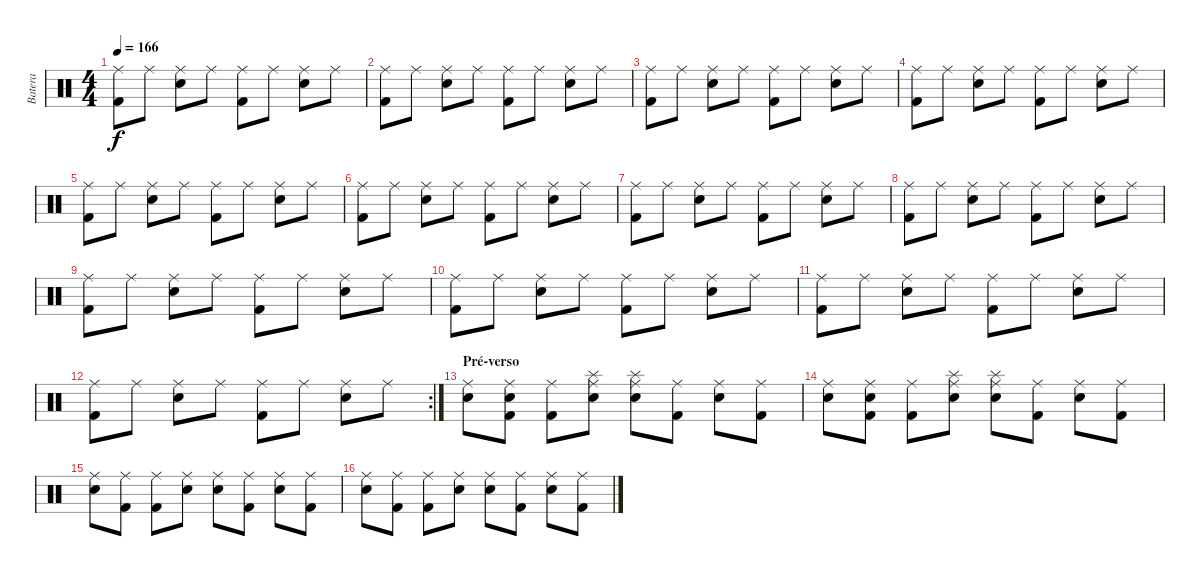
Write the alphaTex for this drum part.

\track ("Batera" "Batera") {instrument percussion}
\staff {score}
\articulation defaults
\ts (4 4)
\tempo 166
\clef neutral
\ks c
("Ride (middle)" "Kick (hit) 2").8{dy f} "Ride (middle)".8 ("Ride (middle)" "Snare (hit) 2").8 "Ride (middle)".8 ("Ride (middle)" "Kick (hit) 2").8 "Ride (middle)".8 ("Ride (middle)" "Snare (hit) 2").8 "Ride (middle)".8 |
("Ride (middle)" "Kick (hit) 2").8 "Ride (middle)".8 ("Ride (middle)" "Snare (hit) 2").8 "Ride (middle)".8 ("Ride (middle)" "Kick (hit) 2").8 "Ride (middle)".8 ("Ride (middle)" "Snare (hit) 2").8 "Ride (middle)".8 |
("Ride (middle)" "Kick (hit) 2").8 "Ride (middle)".8 ("Ride (middle)" "Snare (hit) 2").8 "Ride (middle)".8 ("Ride (middle)" "Kick (hit) 2").8 "Ride (middle)".8 ("Ride (middle)" "Snare (hit) 2").8 "Ride (middle)".8 |
("Ride (middle)" "Kick (hit) 2").8 "Ride (middle)".8 ("Ride (middle)" "Snare (hit) 2").8 "Ride (middle)".8 ("Ride (middle)" "Kick (hit) 2").8 "Ride (middle)".8 ("Ride (middle)" "Snare (hit) 2").8 "Ride (middle)".8 |
("Ride (middle)" "Kick (hit) 2").8 "Ride (middle)".8 ("Ride (middle)" "Snare (hit) 2").8 "Ride (middle)".8 ("Ride (middle)" "Kick (hit) 2").8 "Ride (middle)".8 ("Ride (middle)" "Snare (hit) 2").8 "Ride (middle)".8 |
("Ride (middle)" "Kick (hit) 2").8 "Ride (middle)".8 ("Ride (middle)" "Snare (hit) 2").8 "Ride (middle)".8 ("Ride (middle)" "Kick (hit) 2").8 "Ride (middle)".8 ("Ride (middle)" "Snare (hit) 2").8 "Ride (middle)".8 |
("Ride (middle)" "Kick (hit) 2").8 "Ride (middle)".8 ("Ride (middle)" "Snare (hit) 2").8 "Ride (middle)".8 ("Ride (middle)" "Kick (hit) 2").8 "Ride (middle)".8 ("Ride (middle)" "Snare (hit) 2").8 "Ride (middle)".8 |
("Ride (middle)" "Kick (hit) 2").8 "Ride (middle)".8 ("Ride (middle)" "Snare (hit) 2").8 "Ride (middle)".8 ("Ride (middle)" "Kick (hit) 2").8 "Ride (middle)".8 ("Ride (middle)" "Snare (hit) 2").8 "Ride (middle)".8 |
("Ride (middle)" "Kick (hit) 2").8 "Ride (middle)".8 ("Ride (middle)" "Snare (hit) 2").8 "Ride (middle)".8 ("Ride (middle)" "Kick (hit) 2").8 "Ride (middle)".8 ("Ride (middle)" "Snare (hit) 2").8 "Ride (middle)".8 |
("Ride (middle)" "Kick (hit) 2").8 "Ride (middle)".8 ("Ride (middle)" "Snare (hit) 2").8 "Ride (middle)".8 ("Ride (middle)" "Kick (hit) 2").8 "Ride (middle)".8 ("Ride (middle)" "Snare (hit) 2").8 "Ride (middle)".8 |
("Ride (middle)" "Kick (hit) 2").8 "Ride (middle)".8 ("Ride (middle)" "Snare (hit) 2").8 "Ride (middle)".8 ("Ride (middle)" "Kick (hit) 2").8 "Ride (middle)".8 ("Ride (middle)" "Snare (hit) 2").8 "Ride (middle)".8 |
\rc 2
("Ride (middle)" "Kick (hit) 2").8 "Ride (middle)".8 ("Ride (middle)" "Snare (hit) 2").8 "Ride (middle)".8 ("Ride (middle)" "Kick (hit) 2").8 "Ride (middle)".8 ("Ride (middle)" "Snare (hit) 2").8 "Ride (middle)".8 |
\section ("" "Pré-verso")
("Ride (middle)" "Snare (hit) 2").8 ("Ride (middle)" "Kick (hit) 2" "Snare (hit) 2").8 ("Ride (middle)" "Kick (hit) 2").8 ("Ride (middle)" "Splash (hit)" "Snare (hit) 2").8 ("Ride (middle)" "Splash (hit)" "Snare (hit) 2").8 ("Ride (middle)" "Kick (hit) 2").8 ("Ride (middle)" "Snare (hit) 2").8 ("Ride (middle)" "Kick (hit) 2").8 |
("Ride (middle)" "Snare (hit) 2").8 ("Ride (middle)" "Kick (hit) 2" "Snare (hit) 2").8 ("Ride (middle)" "Kick (hit) 2").8 ("Ride (middle)" "Splash (hit)" "Snare (hit) 2").8 ("Ride (middle)" "Splash (hit)" "Snare (hit) 2").8 ("Ride (middle)" "Kick (hit) 2").8 ("Ride (middle)" "Snare (hit) 2").8 ("Ride (middle)" "Kick (hit) 2").8 |
("Ride (middle)" "Snare (hit) 2").8 ("Ride (middle)" "Kick (hit) 2").8 ("Ride (middle)" "Kick (hit) 2").8 ("Ride (middle)" "Snare (hit) 2").8 ("Ride (middle)" "Snare (hit) 2").8 ("Ride (middle)" "Kick (hit) 2").8 ("Ride (middle)" "Snare (hit) 2").8 ("Ride (middle)" "Kick (hit) 2").8 |
("Ride (middle)" "Snare (hit) 2").8 ("Ride (middle)" "Kick (hit) 2").8 ("Ride (middle)" "Kick (hit) 2").8 ("Ride (middle)" "Snare (hit) 2").8 ("Ride (middle)" "Snare (hit) 2").8 ("Ride (middle)" "Kick (hit) 2").8 ("Ride (middle)" "Snare (hit) 2").8 ("Ride (middle)" "Kick (hit) 2").8
